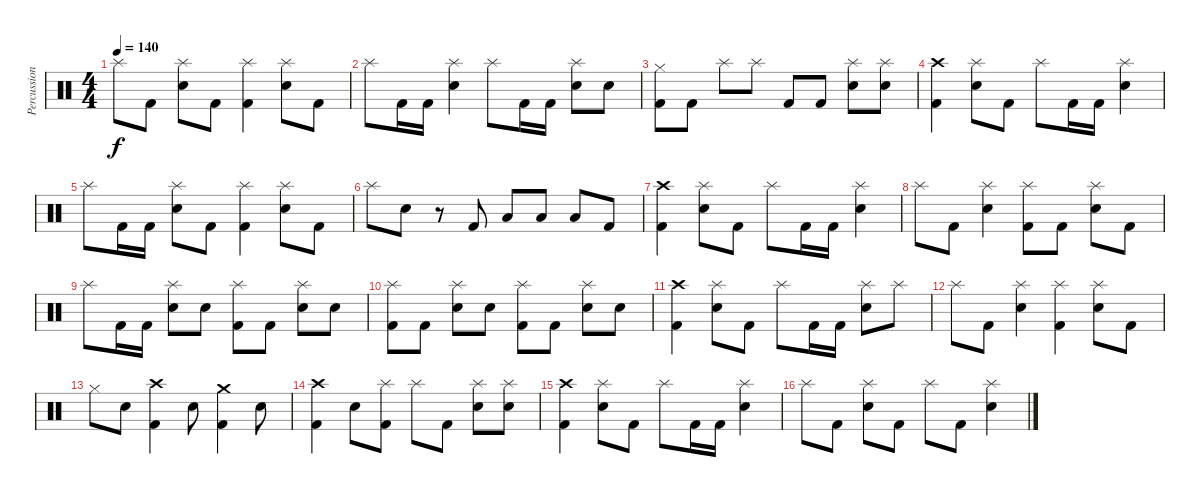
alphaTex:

\track ("Percussion" "Percussion") {instrument percussion}
\staff {score}
\articulation defaults
\ts (4 4)
\tempo 140
\clef neutral
\ks c "Splash (hit)".8{dy f} "Kick (hit) 2".8
("Snare (hit) 2" "Splash (hit)").8 "Kick (hit) 2".8 ("Kick (hit) 2" "Splash (hit)").4 ("Snare (hit) 2" "Splash (hit)").8 "Kick (hit) 2".8 |
"Splash (hit)".8 "Kick (hit) 2".16 "Kick (hit) 2".16 ("Snare (hit) 2" "Splash (hit)").4 "Splash (hit)".8 "Kick (hit) 2".16 "Kick (hit) 2".16 ("Snare (hit) 2" "Splash (hit)").8 "Snare (hit) 2".8 |
("Kick (hit) 2" "Hi-Hat (closed)").8 "Kick (hit) 2".8 "Splash (hit)".8 "Splash (hit)".8 "Kick (hit) 2".8 "Kick (hit) 2".8 ("Snare (hit) 2" "Splash (hit)").8 ("Snare (hit) 2" "Splash (hit)").8 |
("Kick (hit) 2" "Crash high (hit)").4 ("Snare (hit) 2" "Splash (hit)").8 "Kick (hit) 2".8 "Splash (hit)".8 "Kick (hit) 2".16 "Kick (hit) 2".16 ("Snare (hit) 2" "Splash (hit)").4 |
"Splash (hit)".8 "Kick (hit) 2".16 "Kick (hit) 2".16 ("Snare (hit) 2" "Splash (hit)").8 "Kick (hit) 2".8 ("Kick (hit) 2" "Splash (hit)").4 ("Snare (hit) 2" "Splash (hit)").8 "Kick (hit) 2".8 |
"Splash (hit)".8 "Snare (hit) 2".8 r.8 "Kick (hit) 2".8 "Low Tom (hit)".8 "Low Tom (hit)".8 "Low Floor Tom (hit)".8 "Kick (hit) 2".8 |
("Kick (hit) 2" "Crash high (hit)").4 ("Snare (hit) 2" "Splash (hit)").8 "Kick (hit) 2".8 "Splash (hit)".8 "Kick (hit) 2".16 "Kick (hit) 2".16 ("Snare (hit) 2" "Splash (hit)").4 |
"Splash (hit)".8 "Kick (hit) 2".8 ("Snare (hit) 2" "Splash (hit)").4 ("Kick (hit) 2" "Splash (hit)").8 "Kick (hit) 2".8 ("Snare (hit) 2" "Splash (hit)").8 "Kick (hit) 2".8 |
"Splash (hit)".8 "Kick (hit) 2".16 "Kick (hit) 2".16 ("Snare (hit) 2" "Splash (hit)").8 "Snare (hit) 2".8 ("Kick (hit) 2" "Splash (hit)").8 "Kick (hit) 2".8 ("Snare (hit) 2" "Splash (hit)").8 "Snare (hit) 2".8 |
("Kick (hit) 2" "Splash (hit)").8 "Kick (hit) 2".8 ("Snare (hit) 2" "Splash (hit)").8 "Snare (hit) 2".8 ("Kick (hit) 2" "Splash (hit)").8 "Kick (hit) 2".8 ("Snare (hit) 2" "Splash (hit)").8 "Snare (hit) 2".8 |
("Kick (hit) 2" "Crash high (hit)").4 ("Snare (hit) 2" "Splash (hit)").8 "Kick (hit) 2".8 "Splash (hit)".8 "Kick (hit) 2".16 "Kick (hit) 2".16 ("Snare (hit) 2" "Splash (hit)").8 "Splash (hit)".8 |
"Splash (hit)".8 "Kick (hit) 2".8 ("Snare (hit) 2" "Splash (hit)").4 ("Kick (hit) 2" "Splash (hit)").4 ("Snare (hit) 2" "Splash (hit)").8 "Kick (hit) 2".8 |
"Hi-Hat (closed)".8 "Snare (hit) 2".8 ("Kick (hit) 2" "Crash high (hit)").4 "Snare (hit) 2".8 ("Kick (hit) 2" "Crash medium (hit)").4 "Snare (hit) 2".8 |
("Kick (hit) 2" "Crash high (hit)").4 "Snare (hit) 2".8 ("Kick (hit) 2" "Splash (hit)").8 "Splash (hit)".8 "Kick (hit) 2".8 ("Snare (hit) 2" "Splash (hit)").8 ("Snare (hit) 2" "Splash (hit)").8 |
("Kick (hit) 2" "Crash high (hit)").4 ("Snare (hit) 2" "Splash (hit)").8 "Kick (hit) 2".8 "Splash (hit)".8 "Kick (hit) 2".16 "Kick (hit) 2".16 ("Snare (hit) 2" "Splash (hit)").4 |
"Splash (hit)".8 "Kick (hit) 2".8 ("Snare (hit) 2" "Splash (hit)").8 "Kick (hit) 2".8 "Splash (hit)".8 "Kick (hit) 2".8 ("Snare (hit) 2" "Splash (hit)").4
